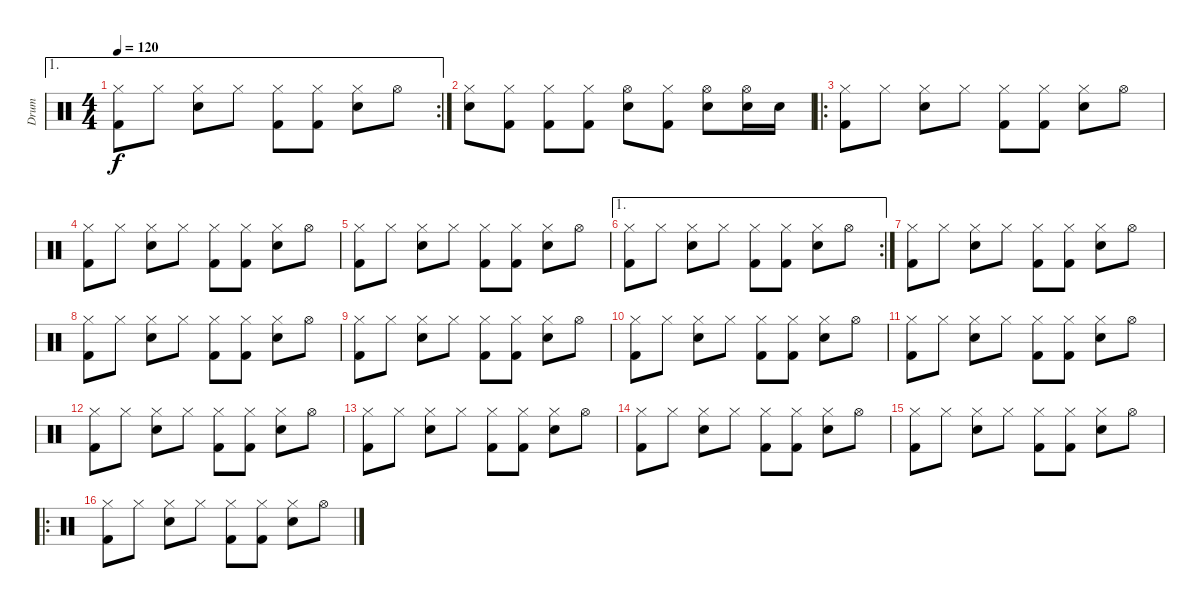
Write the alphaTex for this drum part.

\track ("Drum" "Drum") {instrument percussion}
\staff {score}
\articulation defaults
\ae 1
\rc 2
\ts (4 4)
\tempo 120
\clef neutral
\ks c
("Hi-Hat (closed)" "Kick (hit) 2").8{dy f} "Hi-Hat (closed)".8 ("Hi-Hat (closed)" "Snare (hit) 2").8 "Hi-Hat (closed)".8 ("Hi-Hat (closed)" "Kick (hit) 2").8 ("Hi-Hat (closed)" "Kick (hit) 2").8 ("Hi-Hat (closed)" "Snare (hit) 2").8 "Hi-Hat (open)".8 |
("Hi-Hat (closed)" "Snare (hit) 2").8 ("Hi-Hat (closed)" "Kick (hit) 2").8 ("Hi-Hat (closed)" "Kick (hit) 2").8 ("Hi-Hat (closed)" "Kick (hit) 2").8 ("Hi-Hat (open)" "Snare (hit) 2").8 ("Hi-Hat (closed)" "Kick (hit) 2").8 ("Hi-Hat (open)" "Snare (hit) 2").8 ("Hi-Hat (open)" "Snare (hit) 2").16 "Snare (hit) 2".16 |
\ro
("Hi-Hat (closed)" "Kick (hit) 2").8 "Hi-Hat (closed)".8 ("Hi-Hat (closed)" "Snare (hit) 2").8 "Hi-Hat (closed)".8 ("Hi-Hat (closed)" "Kick (hit) 2").8 ("Hi-Hat (closed)" "Kick (hit) 2").8 ("Hi-Hat (closed)" "Snare (hit) 2").8 "Hi-Hat (open)".8 |
("Hi-Hat (closed)" "Kick (hit) 2").8 "Hi-Hat (closed)".8 ("Hi-Hat (closed)" "Snare (hit) 2").8 "Hi-Hat (closed)".8 ("Hi-Hat (closed)" "Kick (hit) 2").8 ("Hi-Hat (closed)" "Kick (hit) 2").8 ("Hi-Hat (closed)" "Snare (hit) 2").8 "Hi-Hat (open)".8 |
("Hi-Hat (closed)" "Kick (hit) 2").8 "Hi-Hat (closed)".8 ("Hi-Hat (closed)" "Snare (hit) 2").8 "Hi-Hat (closed)".8 ("Hi-Hat (closed)" "Kick (hit) 2").8 ("Hi-Hat (closed)" "Kick (hit) 2").8 ("Hi-Hat (closed)" "Snare (hit) 2").8 "Hi-Hat (open)".8 |
\ae 1
\rc 2
("Hi-Hat (closed)" "Kick (hit) 2").8 "Hi-Hat (closed)".8 ("Hi-Hat (closed)" "Snare (hit) 2").8 "Hi-Hat (closed)".8 ("Hi-Hat (closed)" "Kick (hit) 2").8 ("Hi-Hat (closed)" "Kick (hit) 2").8 ("Hi-Hat (closed)" "Snare (hit) 2").8 "Hi-Hat (open)".8 |
("Hi-Hat (closed)" "Kick (hit) 2").8 "Hi-Hat (closed)".8 ("Hi-Hat (closed)" "Snare (hit) 2").8 "Hi-Hat (closed)".8 ("Hi-Hat (closed)" "Kick (hit) 2").8 ("Hi-Hat (closed)" "Kick (hit) 2").8 ("Hi-Hat (closed)" "Snare (hit) 2").8 "Hi-Hat (open)".8 |
("Hi-Hat (closed)" "Kick (hit) 2").8 "Hi-Hat (closed)".8 ("Hi-Hat (closed)" "Snare (hit) 2").8 "Hi-Hat (closed)".8 ("Hi-Hat (closed)" "Kick (hit) 2").8 ("Hi-Hat (closed)" "Kick (hit) 2").8 ("Hi-Hat (closed)" "Snare (hit) 2").8 "Hi-Hat (open)".8 |
("Hi-Hat (closed)" "Kick (hit) 2").8 "Hi-Hat (closed)".8 ("Hi-Hat (closed)" "Snare (hit) 2").8 "Hi-Hat (closed)".8 ("Hi-Hat (closed)" "Kick (hit) 2").8 ("Hi-Hat (closed)" "Kick (hit) 2").8 ("Hi-Hat (closed)" "Snare (hit) 2").8 "Hi-Hat (open)".8 |
("Hi-Hat (closed)" "Kick (hit) 2").8 "Hi-Hat (closed)".8 ("Hi-Hat (closed)" "Snare (hit) 2").8 "Hi-Hat (closed)".8 ("Hi-Hat (closed)" "Kick (hit) 2").8 ("Hi-Hat (closed)" "Kick (hit) 2").8 ("Hi-Hat (closed)" "Snare (hit) 2").8 "Hi-Hat (open)".8 |
("Hi-Hat (closed)" "Kick (hit) 2").8 "Hi-Hat (closed)".8 ("Hi-Hat (closed)" "Snare (hit) 2").8 "Hi-Hat (closed)".8 ("Hi-Hat (closed)" "Kick (hit) 2").8 ("Hi-Hat (closed)" "Kick (hit) 2").8 ("Hi-Hat (closed)" "Snare (hit) 2").8 "Hi-Hat (open)".8 |
("Hi-Hat (closed)" "Kick (hit) 2").8 "Hi-Hat (closed)".8 ("Hi-Hat (closed)" "Snare (hit) 2").8 "Hi-Hat (closed)".8 ("Hi-Hat (closed)" "Kick (hit) 2").8 ("Hi-Hat (closed)" "Kick (hit) 2").8 ("Hi-Hat (closed)" "Snare (hit) 2").8 "Hi-Hat (open)".8 |
("Hi-Hat (closed)" "Kick (hit) 2").8 "Hi-Hat (closed)".8 ("Hi-Hat (closed)" "Snare (hit) 2").8 "Hi-Hat (closed)".8 ("Hi-Hat (closed)" "Kick (hit) 2").8 ("Hi-Hat (closed)" "Kick (hit) 2").8 ("Hi-Hat (closed)" "Snare (hit) 2").8 "Hi-Hat (open)".8 |
("Hi-Hat (closed)" "Kick (hit) 2").8 "Hi-Hat (closed)".8 ("Hi-Hat (closed)" "Snare (hit) 2").8 "Hi-Hat (closed)".8 ("Hi-Hat (closed)" "Kick (hit) 2").8 ("Hi-Hat (closed)" "Kick (hit) 2").8 ("Hi-Hat (closed)" "Snare (hit) 2").8 "Hi-Hat (open)".8 |
("Hi-Hat (closed)" "Kick (hit) 2").8 "Hi-Hat (closed)".8 ("Hi-Hat (closed)" "Snare (hit) 2").8 "Hi-Hat (closed)".8 ("Hi-Hat (closed)" "Kick (hit) 2").8 ("Hi-Hat (closed)" "Kick (hit) 2").8 ("Hi-Hat (closed)" "Snare (hit) 2").8 "Hi-Hat (open)".8 |
\ro
("Hi-Hat (closed)" "Kick (hit) 2").8 "Hi-Hat (closed)".8 ("Hi-Hat (closed)" "Snare (hit) 2").8 "Hi-Hat (closed)".8 ("Hi-Hat (closed)" "Kick (hit) 2").8 ("Hi-Hat (closed)" "Kick (hit) 2").8 ("Hi-Hat (closed)" "Snare (hit) 2").8 "Hi-Hat (open)".8
